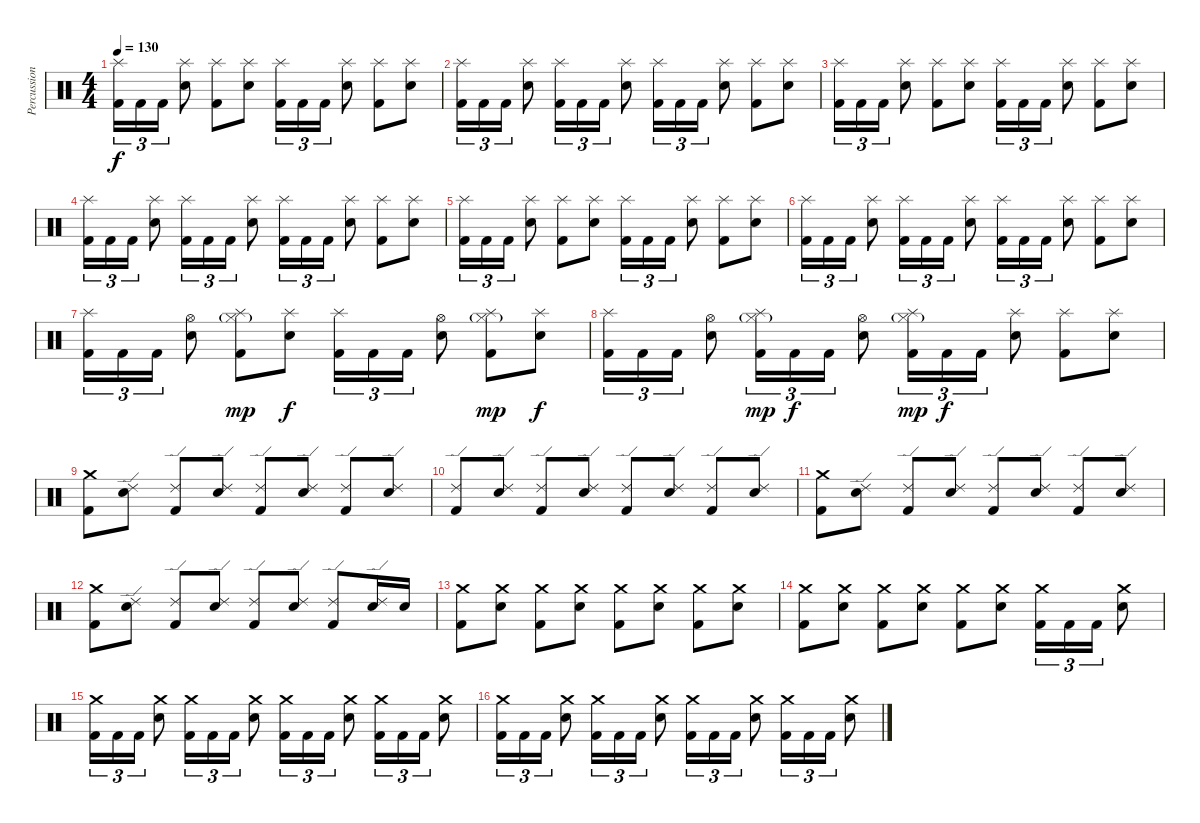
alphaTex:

\track ("Percussion" "Percussion") {instrument percussion}
\staff {score}
\articulation defaults
\ts (4 4)
\tempo 130
\clef neutral
\ks c
("Splash (hit)" "Kick (hit) 2").16{tu (3 2) dy f} "Kick (hit) 2".16{tu (3 2)} "Kick (hit) 2".16{tu (3 2)} ("Splash (hit)" "Electric Snare (hit)").8 ("Splash (hit)" "Kick (hit) 2").8 ("Splash (hit)" "Electric Snare (hit)").8 ("Splash (hit)" "Kick (hit) 2").16{tu (3 2)} "Kick (hit) 2".16{tu (3 2)} "Kick (hit) 2".16{tu (3 2)} ("Splash (hit)" "Electric Snare (hit)").8 ("Splash (hit)" "Kick (hit) 2").8 ("Splash (hit)" "Electric Snare (hit)").8 |
("Splash (hit)" "Kick (hit) 2").16{tu (3 2)} "Kick (hit) 2".16{tu (3 2)} "Kick (hit) 2".16{tu (3 2)} ("Splash (hit)" "Electric Snare (hit)").8 ("Splash (hit)" "Kick (hit) 2").16{tu (3 2)} "Kick (hit) 2".16{tu (3 2)} "Kick (hit) 2".16{tu (3 2)} ("Splash (hit)" "Electric Snare (hit)").8 ("Splash (hit)" "Kick (hit) 2").16{tu (3 2)} "Kick (hit) 2".16{tu (3 2)} "Kick (hit) 2".16{tu (3 2)} ("Splash (hit)" "Electric Snare (hit)").8 ("Splash (hit)" "Kick (hit) 2").8 ("Splash (hit)" "Electric Snare (hit)").8 |
("Splash (hit)" "Kick (hit) 2").16{tu (3 2)} "Kick (hit) 2".16{tu (3 2)} "Kick (hit) 2".16{tu (3 2)} ("Splash (hit)" "Electric Snare (hit)").8 ("Splash (hit)" "Kick (hit) 2").8 ("Splash (hit)" "Electric Snare (hit)").8 ("Splash (hit)" "Kick (hit) 2").16{tu (3 2)} "Kick (hit) 2".16{tu (3 2)} "Kick (hit) 2".16{tu (3 2)} ("Splash (hit)" "Electric Snare (hit)").8 ("Splash (hit)" "Kick (hit) 2").8 ("Splash (hit)" "Electric Snare (hit)").8 |
("Splash (hit)" "Kick (hit) 2").16{tu (3 2)} "Kick (hit) 2".16{tu (3 2)} "Kick (hit) 2".16{tu (3 2)} ("Splash (hit)" "Electric Snare (hit)").8 ("Splash (hit)" "Kick (hit) 2").16{tu (3 2)} "Kick (hit) 2".16{tu (3 2)} "Kick (hit) 2".16{tu (3 2)} ("Splash (hit)" "Electric Snare (hit)").8 ("Splash (hit)" "Kick (hit) 2").16{tu (3 2)} "Kick (hit) 2".16{tu (3 2)} "Kick (hit) 2".16{tu (3 2)} ("Splash (hit)" "Electric Snare (hit)").8 ("Splash (hit)" "Kick (hit) 2").8 ("Splash (hit)" "Electric Snare (hit)").8 |
("Splash (hit)" "Kick (hit) 2").16{tu (3 2)} "Kick (hit) 2".16{tu (3 2)} "Kick (hit) 2".16{tu (3 2)} ("Splash (hit)" "Electric Snare (hit)").8 ("Splash (hit)" "Kick (hit) 2").8 ("Splash (hit)" "Electric Snare (hit)").8 ("Splash (hit)" "Kick (hit) 2").16{tu (3 2)} "Kick (hit) 2".16{tu (3 2)} "Kick (hit) 2".16{tu (3 2)} ("Splash (hit)" "Electric Snare (hit)").8 ("Splash (hit)" "Kick (hit) 2").8 ("Splash (hit)" "Electric Snare (hit)").8 |
("Splash (hit)" "Kick (hit) 2").16{tu (3 2)} "Kick (hit) 2".16{tu (3 2)} "Kick (hit) 2".16{tu (3 2)} ("Splash (hit)" "Electric Snare (hit)").8 ("Splash (hit)" "Kick (hit) 2").16{tu (3 2)} "Kick (hit) 2".16{tu (3 2)} "Kick (hit) 2".16{tu (3 2)} ("Splash (hit)" "Electric Snare (hit)").8 ("Splash (hit)" "Kick (hit) 2").16{tu (3 2)} "Kick (hit) 2".16{tu (3 2)} "Kick (hit) 2".16{tu (3 2)} ("Splash (hit)" "Electric Snare (hit)").8 ("Splash (hit)" "Kick (hit) 2").8 ("Splash (hit)" "Electric Snare (hit)").8 |
("Splash (hit)" "Kick (hit) 2").16{tu (3 2)} "Kick (hit) 2".16{tu (3 2)} "Kick (hit) 2".16{tu (3 2)} ("Hi-Hat (open)" "Electric Snare (hit)").8 ("Splash (hit)" "Hi-Hat (closed)"{g} "Kick (hit) 2").8{dy mp} ("Splash (hit)" "Electric Snare (hit)").8{dy f} ("Splash (hit)" "Kick (hit) 2").16{tu (3 2)} "Kick (hit) 2".16{tu (3 2)} "Kick (hit) 2".16{tu (3 2)} ("Hi-Hat (open)" "Electric Snare (hit)").8 ("Splash (hit)" "Hi-Hat (closed)"{g} "Kick (hit) 2").8{dy mp} ("Splash (hit)" "Electric Snare (hit)").8{dy f} |
("Splash (hit)" "Kick (hit) 2").16{tu (3 2)} "Kick (hit) 2".16{tu (3 2)} "Kick (hit) 2".16{tu (3 2)} ("Hi-Hat (open)" "Electric Snare (hit)").8 ("Splash (hit)" "Hi-Hat (closed)"{g} "Kick (hit) 2").16{tu (3 2) dy mp} "Kick (hit) 2".16{tu (3 2) dy f} "Kick (hit) 2".16{tu (3 2)} ("Hi-Hat (open)" "Electric Snare (hit)").8 ("Splash (hit)" "Hi-Hat (closed)"{g} "Kick (hit) 2").16{tu (3 2) dy mp} "Kick (hit) 2".16{tu (3 2) dy f} "Kick (hit) 2".16{tu (3 2)} ("Splash (hit)" "Electric Snare (hit)").8 ("Splash (hit)" "Kick (hit) 2").8 ("Splash (hit)" "Electric Snare (hit)").8 |
("Crash medium (hit)" "Kick (hit) 2").8 ("Ride (edge) 2" "Electric Snare (hit)").8 ("Ride (edge) 2" "Kick (hit) 2").8 ("Ride (edge) 2" "Electric Snare (hit)").8 ("Ride (edge) 2" "Kick (hit) 2").8 ("Ride (edge) 2" "Electric Snare (hit)").8 ("Ride (edge) 2" "Kick (hit) 2").8 ("Ride (edge) 2" "Electric Snare (hit)").8 |
("Ride (edge) 2" "Kick (hit) 2").8 ("Ride (edge) 2" "Electric Snare (hit)").8 ("Ride (edge) 2" "Kick (hit) 2").8 ("Ride (edge) 2" "Electric Snare (hit)").8 ("Ride (edge) 2" "Kick (hit) 2").8 ("Ride (edge) 2" "Electric Snare (hit)").8 ("Ride (edge) 2" "Kick (hit) 2").8 ("Ride (edge) 2" "Electric Snare (hit)").8 |
("Crash medium (hit)" "Kick (hit) 2").8 ("Ride (edge) 2" "Electric Snare (hit)").8 ("Ride (edge) 2" "Kick (hit) 2").8 ("Ride (edge) 2" "Electric Snare (hit)").8 ("Ride (edge) 2" "Kick (hit) 2").8 ("Ride (edge) 2" "Electric Snare (hit)").8 ("Ride (edge) 2" "Kick (hit) 2").8 ("Ride (edge) 2" "Electric Snare (hit)").8 |
("Crash medium (hit)" "Kick (hit) 2").8 ("Ride (edge) 2" "Electric Snare (hit)").8 ("Ride (edge) 2" "Kick (hit) 2").8 ("Ride (edge) 2" "Electric Snare (hit)").8 ("Ride (edge) 2" "Kick (hit) 2").8 ("Ride (edge) 2" "Electric Snare (hit)").8 ("Ride (edge) 2" "Kick (hit) 2").8 ("Ride (edge) 2" "Electric Snare (hit)").16 "Electric Snare (hit)".16 |
("Crash medium (hit)" "Kick (hit) 2").8 ("Crash medium (hit)" "Electric Snare (hit)").8 ("Crash medium (hit)" "Kick (hit) 2").8 ("Crash medium (hit)" "Electric Snare (hit)").8 ("Crash medium (hit)" "Kick (hit) 2").8 ("Crash medium (hit)" "Electric Snare (hit)").8 ("Crash medium (hit)" "Kick (hit) 2").8 ("Crash medium (hit)" "Electric Snare (hit)").8 |
("Crash medium (hit)" "Kick (hit) 2").8 ("Crash medium (hit)" "Electric Snare (hit)").8 ("Crash medium (hit)" "Kick (hit) 2").8 ("Crash medium (hit)" "Electric Snare (hit)").8 ("Crash medium (hit)" "Kick (hit) 2").8 ("Crash medium (hit)" "Electric Snare (hit)").8 ("Crash medium (hit)" "Kick (hit) 2").16{tu (3 2)} "Kick (hit) 2".16{tu (3 2)} "Kick (hit) 2".16{tu (3 2)} ("Crash medium (hit)" "Electric Snare (hit)").8 |
("Crash medium (hit)" "Kick (hit) 2").16{tu (3 2)} "Kick (hit) 2".16{tu (3 2)} "Kick (hit) 2".16{tu (3 2)} ("Crash medium (hit)" "Electric Snare (hit)").8 ("Crash medium (hit)" "Kick (hit) 2").16{tu (3 2)} "Kick (hit) 2".16{tu (3 2)} "Kick (hit) 2".16{tu (3 2)} ("Crash medium (hit)" "Electric Snare (hit)").8 ("Crash medium (hit)" "Kick (hit) 2").16{tu (3 2)} "Kick (hit) 2".16{tu (3 2)} "Kick (hit) 2".16{tu (3 2)} ("Crash medium (hit)" "Electric Snare (hit)").8 ("Crash medium (hit)" "Kick (hit) 2").16{tu (3 2)} "Kick (hit) 2".16{tu (3 2)} "Kick (hit) 2".16{tu (3 2)} ("Crash medium (hit)" "Electric Snare (hit)").8 |
("Crash medium (hit)" "Kick (hit) 2").16{tu (3 2)} "Kick (hit) 2".16{tu (3 2)} "Kick (hit) 2".16{tu (3 2)} ("Crash medium (hit)" "Electric Snare (hit)").8 ("Crash medium (hit)" "Kick (hit) 2").16{tu (3 2)} "Kick (hit) 2".16{tu (3 2)} "Kick (hit) 2".16{tu (3 2)} ("Crash medium (hit)" "Electric Snare (hit)").8 ("Crash medium (hit)" "Kick (hit) 2").16{tu (3 2)} "Kick (hit) 2".16{tu (3 2)} "Kick (hit) 2".16{tu (3 2)} ("Crash medium (hit)" "Electric Snare (hit)").8 ("Crash medium (hit)" "Kick (hit) 2").16{tu (3 2)} "Kick (hit) 2".16{tu (3 2)} "Kick (hit) 2".16{tu (3 2)} ("Crash medium (hit)" "Electric Snare (hit)").8
